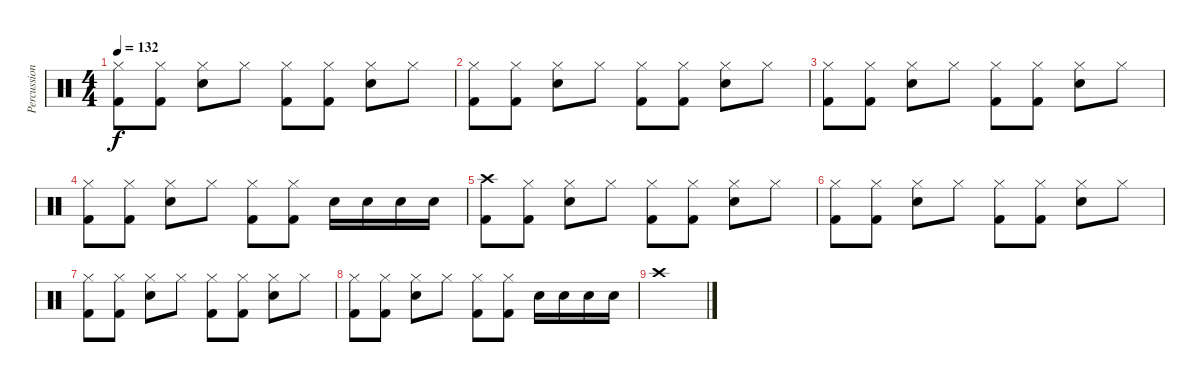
\track ("Percussion" "Percussion") {instrument percussion}
\staff {score}
\articulation defaults
\ts (4 4)
\tempo 132
\clef neutral
\ks c
("Hi-Hat (closed)" "Kick (hit) 2").8{dy f} ("Hi-Hat (closed)" "Kick (hit) 2").8 ("Hi-Hat (closed)" "Electric Snare (hit)").8 "Hi-Hat (closed)".8 ("Hi-Hat (closed)" "Kick (hit) 2").8 ("Hi-Hat (closed)" "Kick (hit) 2").8 ("Hi-Hat (closed)" "Electric Snare (hit)").8 "Hi-Hat (closed)".8 |
("Hi-Hat (closed)" "Kick (hit) 2").8 ("Hi-Hat (closed)" "Kick (hit) 2").8 ("Hi-Hat (closed)" "Electric Snare (hit)").8 "Hi-Hat (closed)".8 ("Hi-Hat (closed)" "Kick (hit) 2").8 ("Hi-Hat (closed)" "Kick (hit) 2").8 ("Hi-Hat (closed)" "Electric Snare (hit)").8 "Hi-Hat (closed)".8 |
("Hi-Hat (closed)" "Kick (hit) 2").8 ("Hi-Hat (closed)" "Kick (hit) 2").8 ("Hi-Hat (closed)" "Electric Snare (hit)").8 "Hi-Hat (closed)".8 ("Hi-Hat (closed)" "Kick (hit) 2").8 ("Hi-Hat (closed)" "Kick (hit) 2").8 ("Hi-Hat (closed)" "Electric Snare (hit)").8 "Hi-Hat (closed)".8 |
("Hi-Hat (closed)" "Kick (hit) 2").8 ("Hi-Hat (closed)" "Kick (hit) 2").8 ("Hi-Hat (closed)" "Electric Snare (hit)").8 "Hi-Hat (closed)".8 ("Hi-Hat (closed)" "Kick (hit) 2").8 ("Hi-Hat (closed)" "Kick (hit) 2").8 "Electric Snare (hit)".16 "Electric Snare (hit)".16 "Electric Snare (hit)".16 "Electric Snare (hit)".16 |
("Crash high (hit)" "Kick (hit) 2").8 ("Hi-Hat (closed)" "Kick (hit) 2").8 ("Hi-Hat (closed)" "Electric Snare (hit)").8 "Hi-Hat (closed)".8 ("Hi-Hat (closed)" "Kick (hit) 2").8 ("Hi-Hat (closed)" "Kick (hit) 2").8 ("Hi-Hat (closed)" "Electric Snare (hit)").8 "Hi-Hat (closed)".8 |
("Hi-Hat (closed)" "Kick (hit) 2").8 ("Hi-Hat (closed)" "Kick (hit) 2").8 ("Hi-Hat (closed)" "Electric Snare (hit)").8 "Hi-Hat (closed)".8 ("Hi-Hat (closed)" "Kick (hit) 2").8 ("Hi-Hat (closed)" "Kick (hit) 2").8 ("Hi-Hat (closed)" "Electric Snare (hit)").8 "Hi-Hat (closed)".8 |
("Hi-Hat (closed)" "Kick (hit) 2").8 ("Hi-Hat (closed)" "Kick (hit) 2").8 ("Hi-Hat (closed)" "Electric Snare (hit)").8 "Hi-Hat (closed)".8 ("Hi-Hat (closed)" "Kick (hit) 2").8 ("Hi-Hat (closed)" "Kick (hit) 2").8 ("Hi-Hat (closed)" "Electric Snare (hit)").8 "Hi-Hat (closed)".8 |
("Hi-Hat (closed)" "Kick (hit) 2").8 ("Hi-Hat (closed)" "Kick (hit) 2").8 ("Hi-Hat (closed)" "Electric Snare (hit)").8 "Hi-Hat (closed)".8 ("Hi-Hat (closed)" "Kick (hit) 2").8 ("Hi-Hat (closed)" "Kick (hit) 2").8 "Electric Snare (hit)".16 "Electric Snare (hit)".16 "Electric Snare (hit)".16 "Electric Snare (hit)".16 |
"Crash high (hit)".1
